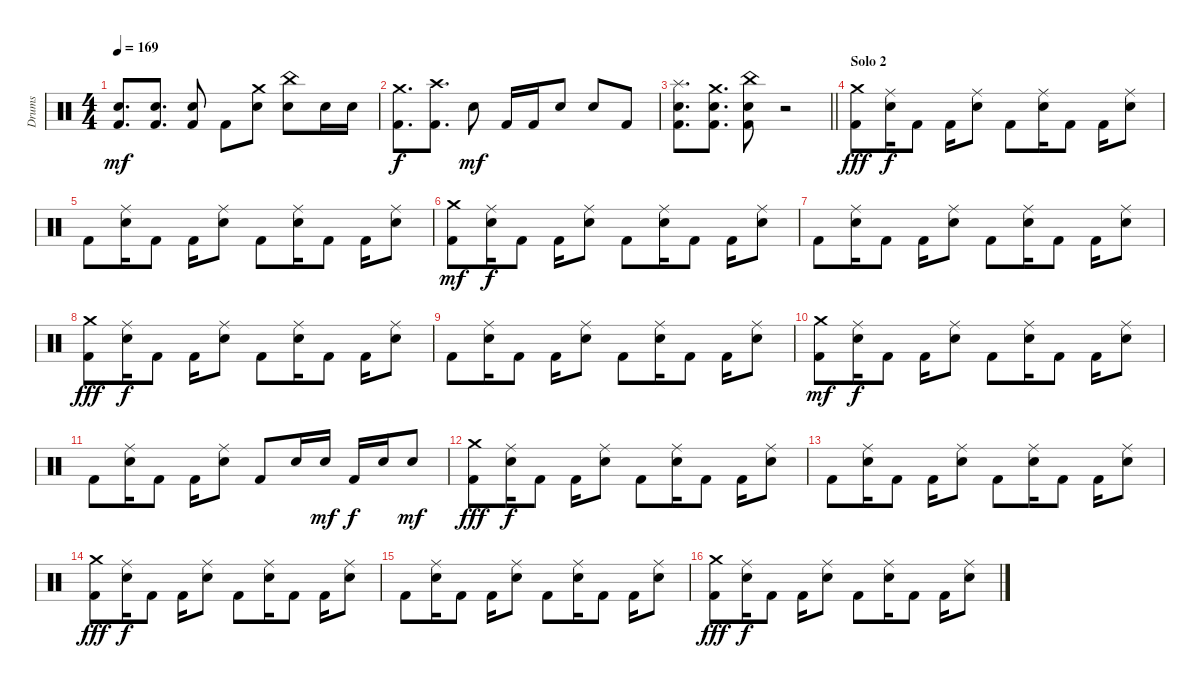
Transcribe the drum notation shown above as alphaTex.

\track ("Drums" "Drums") {instrument percussion}
\staff {score}
\articulation defaults
\ts (4 4)
\tempo 169
\clef neutral
\ks c
("Kick (hit) 2" "Electric Snare (hit)").8{d dy mf} ("Kick (hit) 2" "Electric Snare (hit)").8{d} ("Kick (hit) 2" "Electric Snare (hit)").8 "Kick (hit) 2".8 ("Electric Snare (hit)" "Crash medium (hit)").8 ("Electric Snare (hit)" "China (hit)").8 "Electric Snare (hit)".16 "Electric Snare (hit)".16 |
("Kick (hit) 2" "Crash medium (hit)").8{d dy f} ("Kick (hit) 2" "Crash high (hit)").8{d} "Electric Snare (hit)".8{dy mf} "Kick (hit) 2".16 "Kick (hit) 2".16 "Electric Snare (hit)".8 "Electric Snare (hit)".8 "Kick (hit) 2".8 |
\barLineRight lightlight
("Kick (hit) 2" "Electric Snare (hit)" "Splash (hit)").8{d} ("Kick (hit) 2" "Electric Snare (hit)" "Crash medium (hit)").8{d} ("Kick (hit) 2" "Electric Snare (hit)" "China (hit)").8 r.2 |
\section ("" "Solo 2")
("Kick (hit) 2" "Crash medium (hit)").8{dy fff} ("Electric Snare (hit)" "Ride (middle)").16{dy f} "Kick (hit) 2".8 "Kick (hit) 2".16 ("Electric Snare (hit)" "Ride (middle)").8 "Kick (hit) 2".8 ("Electric Snare (hit)" "Ride (middle)").16 "Kick (hit) 2".8 "Kick (hit) 2".16 ("Electric Snare (hit)" "Ride (middle)").8 |
"Kick (hit) 2".8 ("Electric Snare (hit)" "Ride (middle)").16 "Kick (hit) 2".8 "Kick (hit) 2".16 ("Electric Snare (hit)" "Ride (middle)").8 "Kick (hit) 2".8 ("Electric Snare (hit)" "Ride (middle)").16 "Kick (hit) 2".8 "Kick (hit) 2".16 ("Electric Snare (hit)" "Ride (middle)").8 |
("Kick (hit) 2" "Crash medium (hit)").8{dy mf} ("Electric Snare (hit)" "Ride (middle)").16{dy f} "Kick (hit) 2".8 "Kick (hit) 2".16 ("Electric Snare (hit)" "Ride (middle)").8 "Kick (hit) 2".8 ("Electric Snare (hit)" "Ride (middle)").16 "Kick (hit) 2".8 "Kick (hit) 2".16 ("Electric Snare (hit)" "Ride (middle)").8 |
"Kick (hit) 2".8 ("Electric Snare (hit)" "Ride (middle)").16 "Kick (hit) 2".8 "Kick (hit) 2".16 ("Electric Snare (hit)" "Ride (middle)").8 "Kick (hit) 2".8 ("Electric Snare (hit)" "Ride (middle)").16 "Kick (hit) 2".8 "Kick (hit) 2".16 ("Electric Snare (hit)" "Ride (middle)").8 |
("Kick (hit) 2" "Crash medium (hit)").8{dy fff} ("Electric Snare (hit)" "Ride (middle)").16{dy f} "Kick (hit) 2".8 "Kick (hit) 2".16 ("Electric Snare (hit)" "Ride (middle)").8 "Kick (hit) 2".8 ("Electric Snare (hit)" "Ride (middle)").16 "Kick (hit) 2".8 "Kick (hit) 2".16 ("Electric Snare (hit)" "Ride (middle)").8 |
"Kick (hit) 2".8 ("Electric Snare (hit)" "Ride (middle)").16 "Kick (hit) 2".8 "Kick (hit) 2".16 ("Electric Snare (hit)" "Ride (middle)").8 "Kick (hit) 2".8 ("Electric Snare (hit)" "Ride (middle)").16 "Kick (hit) 2".8 "Kick (hit) 2".16 ("Electric Snare (hit)" "Ride (middle)").8 |
("Kick (hit) 2" "Crash medium (hit)").8{dy mf} ("Electric Snare (hit)" "Ride (middle)").16{dy f} "Kick (hit) 2".8 "Kick (hit) 2".16 ("Electric Snare (hit)" "Ride (middle)").8 "Kick (hit) 2".8 ("Electric Snare (hit)" "Ride (middle)").16 "Kick (hit) 2".8 "Kick (hit) 2".16 ("Electric Snare (hit)" "Ride (middle)").8 |
"Kick (hit) 2".8 ("Electric Snare (hit)" "Ride (middle)").16 "Kick (hit) 2".8 "Kick (hit) 2".16 ("Electric Snare (hit)" "Ride (middle)").8 "Kick (hit) 2".8 "Electric Snare (hit)".16 "Electric Snare (hit)".16{dy mf} "Kick (hit) 2".16{dy f} "Electric Snare (hit)".16 "Electric Snare (hit)".8{dy mf} |
("Kick (hit) 2" "Crash medium (hit)").8{dy fff} ("Electric Snare (hit)" "Ride (middle)").16{dy f} "Kick (hit) 2".8 "Kick (hit) 2".16 ("Electric Snare (hit)" "Ride (middle)").8 "Kick (hit) 2".8 ("Electric Snare (hit)" "Ride (middle)").16 "Kick (hit) 2".8 "Kick (hit) 2".16 ("Electric Snare (hit)" "Ride (middle)").8 |
"Kick (hit) 2".8 ("Electric Snare (hit)" "Ride (middle)").16 "Kick (hit) 2".8 "Kick (hit) 2".16 ("Electric Snare (hit)" "Ride (middle)").8 "Kick (hit) 2".8 ("Electric Snare (hit)" "Ride (middle)").16 "Kick (hit) 2".8 "Kick (hit) 2".16 ("Electric Snare (hit)" "Ride (middle)").8 |
("Kick (hit) 2" "Crash medium (hit)").8{dy fff} ("Electric Snare (hit)" "Ride (middle)").16{dy f} "Kick (hit) 2".8 "Kick (hit) 2".16 ("Electric Snare (hit)" "Ride (middle)").8 "Kick (hit) 2".8 ("Electric Snare (hit)" "Ride (middle)").16 "Kick (hit) 2".8 "Kick (hit) 2".16 ("Electric Snare (hit)" "Ride (middle)").8 |
"Kick (hit) 2".8 ("Electric Snare (hit)" "Ride (middle)").16 "Kick (hit) 2".8 "Kick (hit) 2".16 ("Electric Snare (hit)" "Ride (middle)").8 "Kick (hit) 2".8 ("Electric Snare (hit)" "Ride (middle)").16 "Kick (hit) 2".8 "Kick (hit) 2".16 ("Electric Snare (hit)" "Ride (middle)").8 |
("Kick (hit) 2" "Crash medium (hit)").8{dy fff} ("Electric Snare (hit)" "Ride (middle)").16{dy f} "Kick (hit) 2".8 "Kick (hit) 2".16 ("Electric Snare (hit)" "Ride (middle)").8 "Kick (hit) 2".8 ("Electric Snare (hit)" "Ride (middle)").16 "Kick (hit) 2".8 "Kick (hit) 2".16 ("Electric Snare (hit)" "Ride (middle)").8
